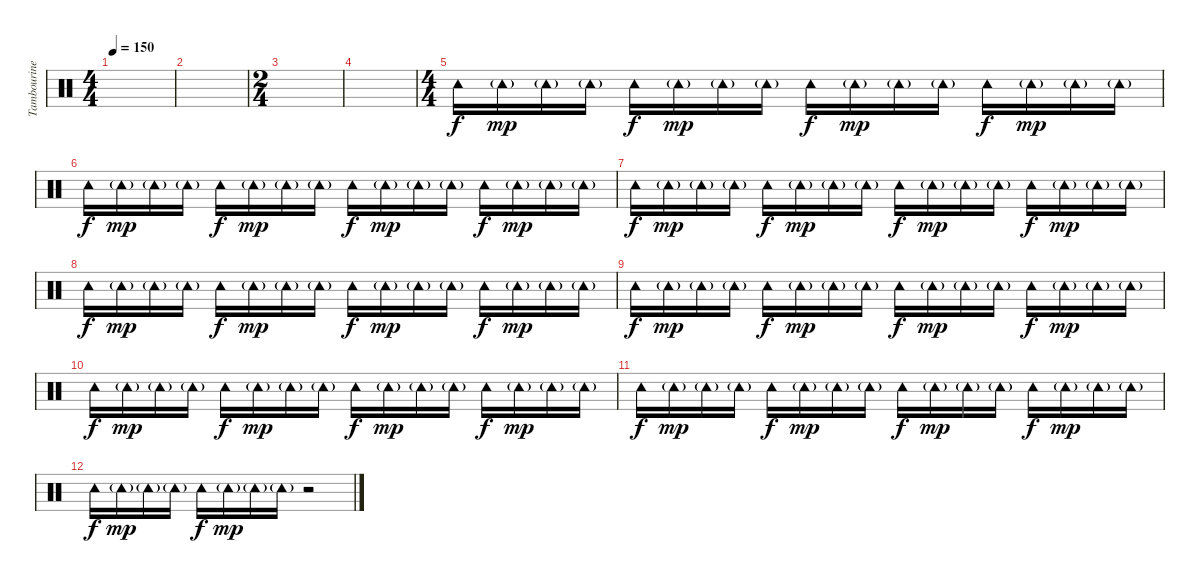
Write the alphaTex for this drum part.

\track ("Tambourine" "Tambourine") {instrument percussion}
\staff {score}
\articulation defaults
\ts (4 4)
\tempo 150
\clef neutral
\ks c
|
|
\ts (2 4)
|
|
\ts (4 4)
"Tambourine (hit)".16{dy f} "Tambourine (hit)"{g}.16{dy mp} "Tambourine (hit)"{g}.16 "Tambourine (hit)"{g}.16 "Tambourine (hit)".16{dy f} "Tambourine (hit)"{g}.16{dy mp} "Tambourine (hit)"{g}.16 "Tambourine (hit)"{g}.16 "Tambourine (hit)".16{dy f} "Tambourine (hit)"{g}.16{dy mp} "Tambourine (hit)"{g}.16 "Tambourine (hit)"{g}.16 "Tambourine (hit)".16{dy f} "Tambourine (hit)"{g}.16{dy mp} "Tambourine (hit)"{g}.16 "Tambourine (hit)"{g}.16 |
"Tambourine (hit)".16{dy f} "Tambourine (hit)"{g}.16{dy mp} "Tambourine (hit)"{g}.16 "Tambourine (hit)"{g}.16 "Tambourine (hit)".16{dy f} "Tambourine (hit)"{g}.16{dy mp} "Tambourine (hit)"{g}.16 "Tambourine (hit)"{g}.16 "Tambourine (hit)".16{dy f} "Tambourine (hit)"{g}.16{dy mp} "Tambourine (hit)"{g}.16 "Tambourine (hit)"{g}.16 "Tambourine (hit)".16{dy f} "Tambourine (hit)"{g}.16{dy mp} "Tambourine (hit)"{g}.16 "Tambourine (hit)"{g}.16 |
"Tambourine (hit)".16{dy f} "Tambourine (hit)"{g}.16{dy mp} "Tambourine (hit)"{g}.16 "Tambourine (hit)"{g}.16 "Tambourine (hit)".16{dy f} "Tambourine (hit)"{g}.16{dy mp} "Tambourine (hit)"{g}.16 "Tambourine (hit)"{g}.16 "Tambourine (hit)".16{dy f} "Tambourine (hit)"{g}.16{dy mp} "Tambourine (hit)"{g}.16 "Tambourine (hit)"{g}.16 "Tambourine (hit)".16{dy f} "Tambourine (hit)"{g}.16{dy mp} "Tambourine (hit)"{g}.16 "Tambourine (hit)"{g}.16 |
"Tambourine (hit)".16{dy f} "Tambourine (hit)"{g}.16{dy mp} "Tambourine (hit)"{g}.16 "Tambourine (hit)"{g}.16 "Tambourine (hit)".16{dy f} "Tambourine (hit)"{g}.16{dy mp} "Tambourine (hit)"{g}.16 "Tambourine (hit)"{g}.16 "Tambourine (hit)".16{dy f} "Tambourine (hit)"{g}.16{dy mp} "Tambourine (hit)"{g}.16 "Tambourine (hit)"{g}.16 "Tambourine (hit)".16{dy f} "Tambourine (hit)"{g}.16{dy mp} "Tambourine (hit)"{g}.16 "Tambourine (hit)"{g}.16 |
"Tambourine (hit)".16{dy f} "Tambourine (hit)"{g}.16{dy mp} "Tambourine (hit)"{g}.16 "Tambourine (hit)"{g}.16 "Tambourine (hit)".16{dy f} "Tambourine (hit)"{g}.16{dy mp} "Tambourine (hit)"{g}.16 "Tambourine (hit)"{g}.16 "Tambourine (hit)".16{dy f} "Tambourine (hit)"{g}.16{dy mp} "Tambourine (hit)"{g}.16 "Tambourine (hit)"{g}.16 "Tambourine (hit)".16{dy f} "Tambourine (hit)"{g}.16{dy mp} "Tambourine (hit)"{g}.16 "Tambourine (hit)"{g}.16 |
"Tambourine (hit)".16{dy f} "Tambourine (hit)"{g}.16{dy mp} "Tambourine (hit)"{g}.16 "Tambourine (hit)"{g}.16 "Tambourine (hit)".16{dy f} "Tambourine (hit)"{g}.16{dy mp} "Tambourine (hit)"{g}.16 "Tambourine (hit)"{g}.16 "Tambourine (hit)".16{dy f} "Tambourine (hit)"{g}.16{dy mp} "Tambourine (hit)"{g}.16 "Tambourine (hit)"{g}.16 "Tambourine (hit)".16{dy f} "Tambourine (hit)"{g}.16{dy mp} "Tambourine (hit)"{g}.16 "Tambourine (hit)"{g}.16 |
"Tambourine (hit)".16{dy f} "Tambourine (hit)"{g}.16{dy mp} "Tambourine (hit)"{g}.16 "Tambourine (hit)"{g}.16 "Tambourine (hit)".16{dy f} "Tambourine (hit)"{g}.16{dy mp} "Tambourine (hit)"{g}.16 "Tambourine (hit)"{g}.16 "Tambourine (hit)".16{dy f} "Tambourine (hit)"{g}.16{dy mp} "Tambourine (hit)"{g}.16 "Tambourine (hit)"{g}.16 "Tambourine (hit)".16{dy f} "Tambourine (hit)"{g}.16{dy mp} "Tambourine (hit)"{g}.16 "Tambourine (hit)"{g}.16 |
"Tambourine (hit)".16{dy f} "Tambourine (hit)"{g}.16{dy mp} "Tambourine (hit)"{g}.16 "Tambourine (hit)"{g}.16 "Tambourine (hit)".16{dy f} "Tambourine (hit)"{g}.16{dy mp} "Tambourine (hit)"{g}.16 "Tambourine (hit)"{g}.16 r.2
